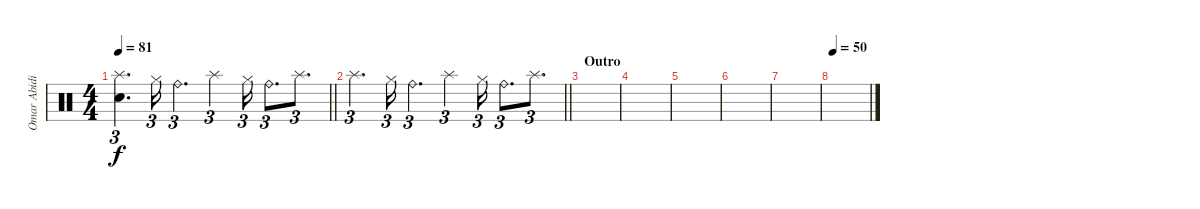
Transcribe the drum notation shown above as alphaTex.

\track ("Omar Abidi" "Omar Abidi") {instrument percussion}
\staff {score}
\articulation defaults
\ts (4 4)
\tempo 81
\clef neutral
\barLineRight lightlight
\ks c
("Splash (hit)" "Electric Snare (hit)").4{d tu (3 2) dy f} "Hi-Hat (closed)".16{tu (3 2)} "Ride (bell)".4{d tu (3 2)} "Splash (hit)".4{tu (3 2)} "Hi-Hat (closed)".16{tu (3 2)} "Ride (bell)".8{d tu (3 2)} "Splash (hit)".8{d tu (3 2)} |
\barLineRight lightlight "Splash (hit)".4{d tu (3 2)} "Hi-Hat (closed)".16{tu (3 2)} "Ride (bell)".4{d tu (3 2)} "Splash (hit)".4{tu (3 2)} "Hi-Hat (closed)".16{tu (3 2)} "Ride (bell)".8{d tu (3 2)} "Splash (hit)".8{d tu (3 2)}
|
\section ("" "Outro")
|
|
|
|
|
\tempo 50
